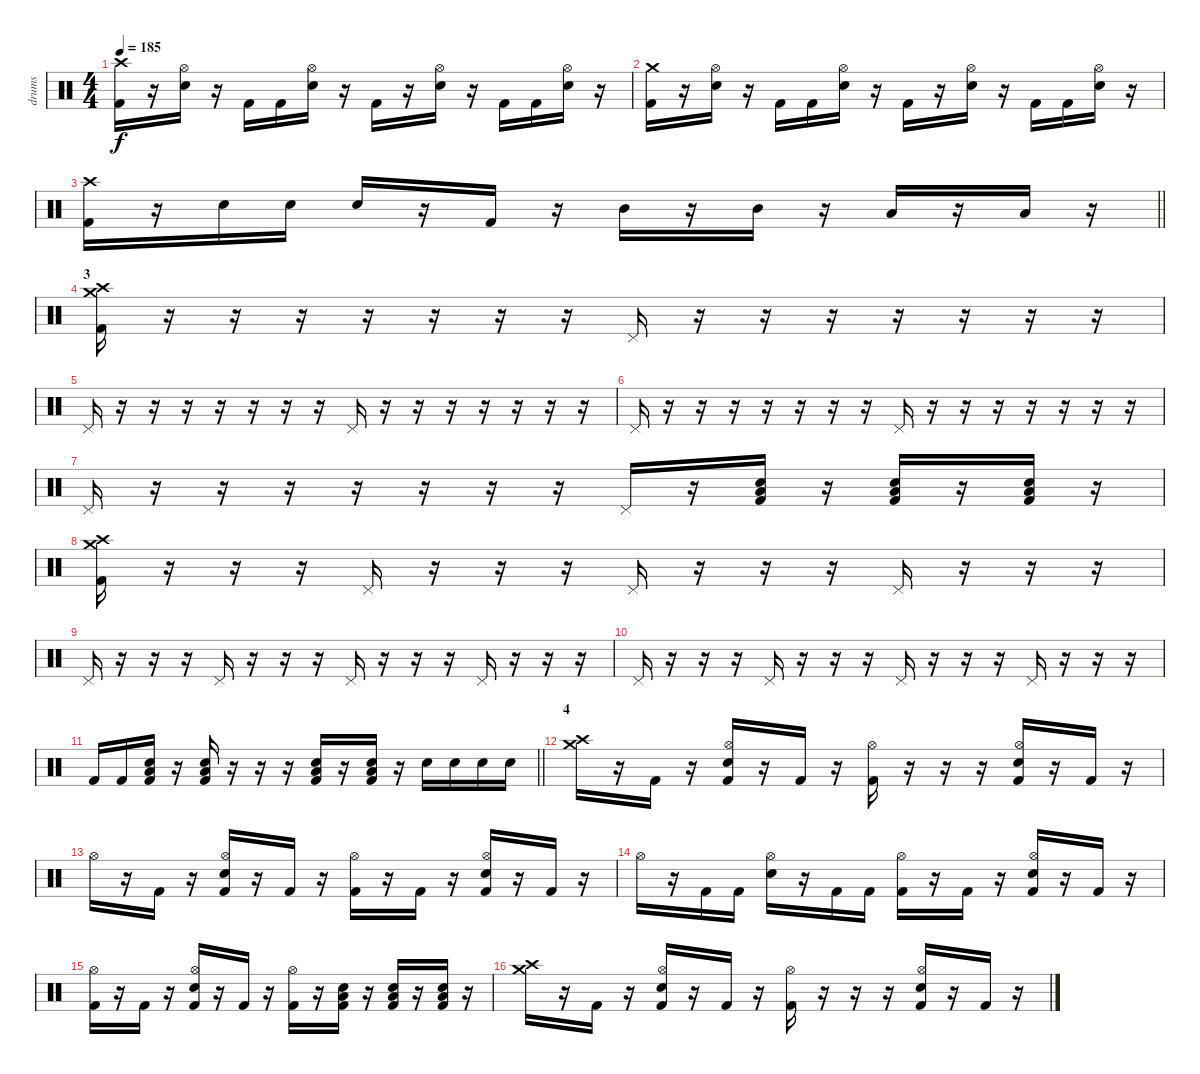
\track ("drums" "drums") {instrument percussion}
\staff {score}
\articulation defaults
\ts (4 4)
\tempo 185
\clef neutral
\ks c
("Crash high (hit)" "Kick (hit) 2").16{dy f} r.16 ("Hi-Hat (open)" "Electric Snare (hit)").16 r.16 "Kick (hit) 2".16 "Kick (hit) 2".16 ("Hi-Hat (open)" "Electric Snare (hit)").16 r.16 "Kick (hit) 2".16 r.16 ("Hi-Hat (open)" "Electric Snare (hit)").16 r.16 "Kick (hit) 2".16 "Kick (hit) 2".16 ("Hi-Hat (open)" "Electric Snare (hit)").16 r.16 |
("Crash medium (hit)" "Kick (hit) 2").16 r.16 ("Hi-Hat (open)" "Electric Snare (hit)").16 r.16 "Kick (hit) 2".16 "Kick (hit) 2".16 ("Hi-Hat (open)" "Electric Snare (hit)").16 r.16 "Kick (hit) 2".16 r.16 ("Hi-Hat (open)" "Electric Snare (hit)").16 r.16 "Kick (hit) 2".16 "Kick (hit) 2".16 ("Hi-Hat (open)" "Electric Snare (hit)").16 r.16 |
\barLineRight lightlight
("Crash high (hit)" "Kick (hit) 2").16 r.16 "Electric Snare (hit)".16 "Electric Snare (hit)".16 "Electric Snare (hit)".16 r.16 "Kick (hit) 2".16 r.16 "Mid Tom (hit)".16 r.16 "Mid Tom (hit)".16 r.16 "Low Floor Tom (hit)".16 r.16 "Low Floor Tom (hit)".16 r.16 |
\section ("" "3")
("Crash medium (hit)" "Crash high (hit)" "Kick (hit) 2").16 r.16 r.16 r.16 r.16 r.16 r.16 r.16 "Pedal Hi-Hat (hit)".16 r.16 r.16 r.16 r.16 r.16 r.16 r.16 |
"Pedal Hi-Hat (hit)".16 r.16 r.16 r.16 r.16 r.16 r.16 r.16 "Pedal Hi-Hat (hit)".16 r.16 r.16 r.16 r.16 r.16 r.16 r.16 |
"Pedal Hi-Hat (hit)".16 r.16 r.16 r.16 r.16 r.16 r.16 r.16 "Pedal Hi-Hat (hit)".16 r.16 r.16 r.16 r.16 r.16 r.16 r.16 |
"Pedal Hi-Hat (hit)".16 r.16 r.16 r.16 r.16 r.16 r.16 r.16 "Pedal Hi-Hat (hit)".16 r.16 ("Low Floor Tom (hit)" "Electric Snare (hit)" "Kick (hit) 2").16 r.16 ("Low Floor Tom (hit)" "Electric Snare (hit)" "Kick (hit) 2").16 r.16 ("Low Floor Tom (hit)" "Electric Snare (hit)" "Kick (hit) 2").16 r.16 |
("Crash medium (hit)" "Crash high (hit)" "Kick (hit) 2").16 r.16 r.16 r.16 "Pedal Hi-Hat (hit)".16 r.16 r.16 r.16 "Pedal Hi-Hat (hit)".16 r.16 r.16 r.16 "Pedal Hi-Hat (hit)".16 r.16 r.16 r.16 |
"Pedal Hi-Hat (hit)".16 r.16 r.16 r.16 "Pedal Hi-Hat (hit)".16 r.16 r.16 r.16 "Pedal Hi-Hat (hit)".16 r.16 r.16 r.16 "Pedal Hi-Hat (hit)".16 r.16 r.16 r.16 |
"Pedal Hi-Hat (hit)".16 r.16 r.16 r.16 "Pedal Hi-Hat (hit)".16 r.16 r.16 r.16 "Pedal Hi-Hat (hit)".16 r.16 r.16 r.16 "Pedal Hi-Hat (hit)".16 r.16 r.16 r.16 |
\barLineRight lightlight "Kick (hit) 2".16 "Kick (hit) 2".16
("Low Floor Tom (hit)" "Electric Snare (hit)" "Kick (hit) 2").16 r.16 ("Low Floor Tom (hit)" "Electric Snare (hit)" "Kick (hit) 2").16 r.16 r.16 r.16 ("Low Floor Tom (hit)" "Electric Snare (hit)" "Kick (hit) 2").16 r.16 ("Low Floor Tom (hit)" "Electric Snare (hit)" "Kick (hit) 2").16 r.16 "Electric Snare (hit)".16 "Electric Snare (hit)".16 "Electric Snare (hit)".16 "Electric Snare (hit)".16 |
\section ("" "4")
("Crash medium (hit)" "Crash high (hit)").16 r.16 "Kick (hit) 2".16 r.16 ("Hi-Hat (open)" "Electric Snare (hit)" "Kick (hit) 2").16 r.16 "Kick (hit) 2".16 r.16 ("Hi-Hat (open)" "Kick (hit) 2").16 r.16 r.16 r.16 ("Hi-Hat (open)" "Electric Snare (hit)" "Kick (hit) 2").16 r.16 "Kick (hit) 2".16 r.16 |
"Hi-Hat (open)".16 r.16 "Kick (hit) 2".16 r.16 ("Hi-Hat (open)" "Electric Snare (hit)" "Kick (hit) 2").16 r.16 "Kick (hit) 2".16 r.16 ("Hi-Hat (open)" "Kick (hit) 2").16 r.16 "Kick (hit) 2".16 r.16 ("Hi-Hat (open)" "Electric Snare (hit)" "Kick (hit) 2").16 r.16 "Kick (hit) 2".16 r.16 |
"Hi-Hat (open)".16 r.16 "Kick (hit) 2".16 "Kick (hit) 2".16 ("Hi-Hat (open)" "Electric Snare (hit)").16 r.16 "Kick (hit) 2".16 "Kick (hit) 2".16 ("Hi-Hat (open)" "Kick (hit) 2").16 r.16 "Kick (hit) 2".16 r.16 ("Hi-Hat (open)" "Electric Snare (hit)" "Kick (hit) 2").16 r.16 "Kick (hit) 2".16 r.16 |
("Hi-Hat (open)" "Kick (hit) 2").16 r.16 "Kick (hit) 2".16 r.16 ("Hi-Hat (open)" "Electric Snare (hit)" "Kick (hit) 2").16 r.16 "Kick (hit) 2".16 r.16 ("Hi-Hat (open)" "Kick (hit) 2").16 r.16 ("Low Floor Tom (hit)" "Electric Snare (hit)" "Kick (hit) 2").16 r.16 ("Low Floor Tom (hit)" "Electric Snare (hit)" "Kick (hit) 2").16 r.16 ("Low Floor Tom (hit)" "Electric Snare (hit)" "Kick (hit) 2").16 r.16 |
("Crash medium (hit)" "Crash high (hit)").16 r.16 "Kick (hit) 2".16 r.16 ("Hi-Hat (open)" "Electric Snare (hit)" "Kick (hit) 2").16 r.16 "Kick (hit) 2".16 r.16 ("Hi-Hat (open)" "Kick (hit) 2").16 r.16 r.16 r.16 ("Hi-Hat (open)" "Electric Snare (hit)" "Kick (hit) 2").16 r.16 "Kick (hit) 2".16 r.16
